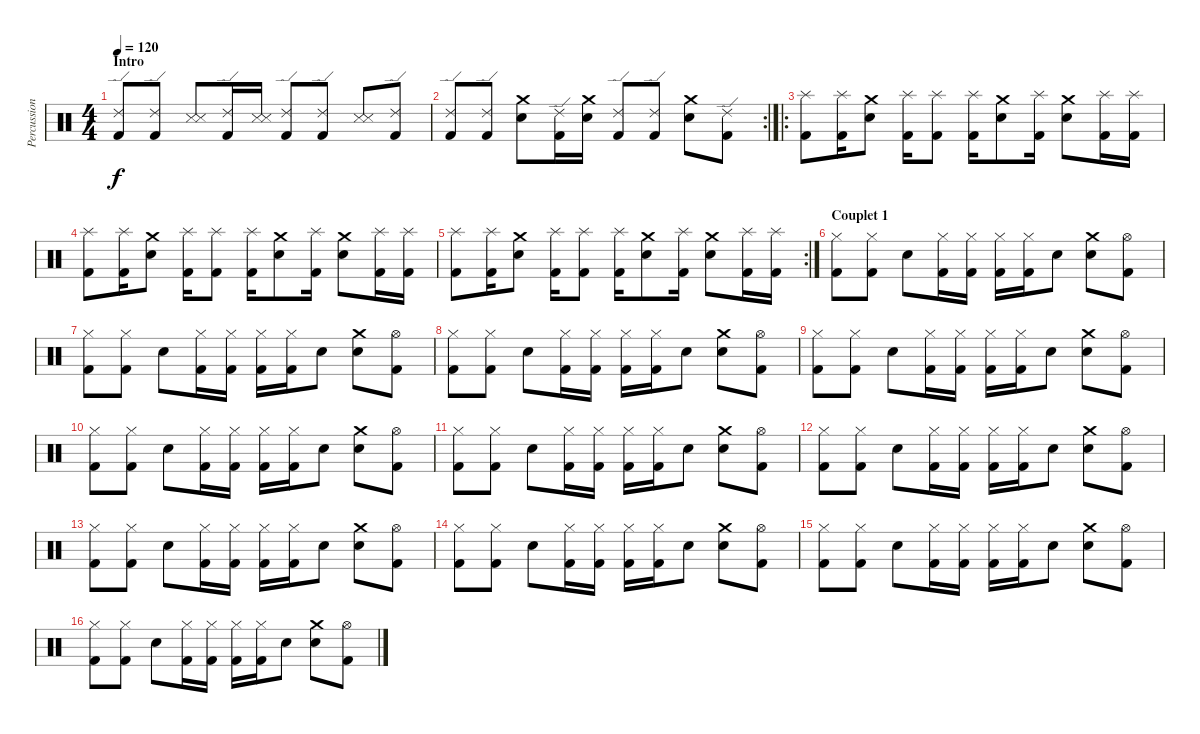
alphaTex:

\track ("Percussions" "Percussion") {instrument percussion}
\staff {score}
\articulation defaults
\ts (4 4)
\section ("" "Intro")
\tempo 120
\clef neutral
\ks c
("Ride (edge) 2" "Kick (hit) 2").8{dy f} ("Ride (edge) 2" "Kick (hit) 2").8 ("Snare (side stick) 3" "Snare (side stick) 3").8 ("Ride (edge) 2" "Kick (hit) 2").16 ("Snare (side stick) 3" "Snare (side stick) 3").16 ("Ride (edge) 2" "Kick (hit) 2").8 ("Ride (edge) 2" "Kick (hit) 2").8 ("Snare (side stick) 3" "Snare (side stick) 3").8 ("Ride (edge) 2" "Kick (hit) 2").8 |
\rc 2
("Ride (edge) 2" "Kick (hit) 2").8 ("Ride (edge) 2" "Kick (hit) 2").8 ("Crash medium (hit)" "Snare (hit) 2").8 ("Ride (edge) 2" "Kick (hit) 2").16 ("Crash medium (hit)" "Snare (hit) 2").16 ("Ride (edge) 2" "Kick (hit) 2").8 ("Ride (edge) 2" "Kick (hit) 2").8 ("Crash medium (hit)" "Snare (hit) 2").8 ("Ride (edge) 2" "Kick (hit) 2").8 |
\ro
("Splash (hit)" "Kick (hit) 2").8 ("Splash (hit)" "Kick (hit) 2").16 ("Crash medium (hit)" "Snare (hit) 2").8 ("Splash (hit)" "Kick (hit) 2").16 ("Splash (hit)" "Kick (hit) 2").8 ("Splash (hit)" "Kick (hit) 2").16 ("Crash medium (hit)" "Snare (hit) 2").8 ("Splash (hit)" "Kick (hit) 2").16 ("Crash medium (hit)" "Snare (hit) 2").8 ("Splash (hit)" "Kick (hit) 2").16 ("Splash (hit)" "Kick (hit) 2").16 |
("Splash (hit)" "Kick (hit) 2").8 ("Splash (hit)" "Kick (hit) 2").16 ("Crash medium (hit)" "Snare (hit) 2").8 ("Splash (hit)" "Kick (hit) 2").16 ("Splash (hit)" "Kick (hit) 2").8 ("Splash (hit)" "Kick (hit) 2").16 ("Crash medium (hit)" "Snare (hit) 2").8 ("Splash (hit)" "Kick (hit) 2").16 ("Crash medium (hit)" "Snare (hit) 2").8 ("Splash (hit)" "Kick (hit) 2").16 ("Splash (hit)" "Kick (hit) 2").16 |
\rc 2
("Splash (hit)" "Kick (hit) 2").8 ("Splash (hit)" "Kick (hit) 2").16 ("Crash medium (hit)" "Snare (hit) 2").8 ("Splash (hit)" "Kick (hit) 2").16 ("Splash (hit)" "Kick (hit) 2").8 ("Splash (hit)" "Kick (hit) 2").16 ("Crash medium (hit)" "Snare (hit) 2").8 ("Splash (hit)" "Kick (hit) 2").16 ("Crash medium (hit)" "Snare (hit) 2").8 ("Splash (hit)" "Kick (hit) 2").16 ("Splash (hit)" "Kick (hit) 2").16 |
\section ("" "Couplet 1")
("Hi-Hat (closed)" "Kick (hit) 2").8 ("Hi-Hat (closed)" "Kick (hit) 2").8 "Snare (hit) 2".8 ("Hi-Hat (closed)" "Kick (hit) 2").16 ("Hi-Hat (closed)" "Kick (hit) 2").16 ("Hi-Hat (closed)" "Kick (hit) 2").16 ("Hi-Hat (closed)" "Kick (hit) 2").16 "Snare (hit) 2".8 ("Crash medium (hit)" "Snare (hit) 2").8 ("Hi-Hat (open)" "Kick (hit) 2").8 |
("Hi-Hat (closed)" "Kick (hit) 2").8 ("Hi-Hat (closed)" "Kick (hit) 2").8 "Snare (hit) 2".8 ("Hi-Hat (closed)" "Kick (hit) 2").16 ("Hi-Hat (closed)" "Kick (hit) 2").16 ("Hi-Hat (closed)" "Kick (hit) 2").16 ("Hi-Hat (closed)" "Kick (hit) 2").16 "Snare (hit) 2".8 ("Crash medium (hit)" "Snare (hit) 2").8 ("Hi-Hat (open)" "Kick (hit) 2").8 |
("Hi-Hat (closed)" "Kick (hit) 2").8 ("Hi-Hat (closed)" "Kick (hit) 2").8 "Snare (hit) 2".8 ("Hi-Hat (closed)" "Kick (hit) 2").16 ("Hi-Hat (closed)" "Kick (hit) 2").16 ("Hi-Hat (closed)" "Kick (hit) 2").16 ("Hi-Hat (closed)" "Kick (hit) 2").16 "Snare (hit) 2".8 ("Crash medium (hit)" "Snare (hit) 2").8 ("Hi-Hat (open)" "Kick (hit) 2").8 |
("Hi-Hat (closed)" "Kick (hit) 2").8 ("Hi-Hat (closed)" "Kick (hit) 2").8 "Snare (hit) 2".8 ("Hi-Hat (closed)" "Kick (hit) 2").16 ("Hi-Hat (closed)" "Kick (hit) 2").16 ("Hi-Hat (closed)" "Kick (hit) 2").16 ("Hi-Hat (closed)" "Kick (hit) 2").16 "Snare (hit) 2".8 ("Crash medium (hit)" "Snare (hit) 2").8 ("Hi-Hat (open)" "Kick (hit) 2").8 |
("Hi-Hat (closed)" "Kick (hit) 2").8 ("Hi-Hat (closed)" "Kick (hit) 2").8 "Snare (hit) 2".8 ("Hi-Hat (closed)" "Kick (hit) 2").16 ("Hi-Hat (closed)" "Kick (hit) 2").16 ("Hi-Hat (closed)" "Kick (hit) 2").16 ("Hi-Hat (closed)" "Kick (hit) 2").16 "Snare (hit) 2".8 ("Crash medium (hit)" "Snare (hit) 2").8 ("Hi-Hat (open)" "Kick (hit) 2").8 |
("Hi-Hat (closed)" "Kick (hit) 2").8 ("Hi-Hat (closed)" "Kick (hit) 2").8 "Snare (hit) 2".8 ("Hi-Hat (closed)" "Kick (hit) 2").16 ("Hi-Hat (closed)" "Kick (hit) 2").16 ("Hi-Hat (closed)" "Kick (hit) 2").16 ("Hi-Hat (closed)" "Kick (hit) 2").16 "Snare (hit) 2".8 ("Crash medium (hit)" "Snare (hit) 2").8 ("Hi-Hat (open)" "Kick (hit) 2").8 |
("Hi-Hat (closed)" "Kick (hit) 2").8 ("Hi-Hat (closed)" "Kick (hit) 2").8 "Snare (hit) 2".8 ("Hi-Hat (closed)" "Kick (hit) 2").16 ("Hi-Hat (closed)" "Kick (hit) 2").16 ("Hi-Hat (closed)" "Kick (hit) 2").16 ("Hi-Hat (closed)" "Kick (hit) 2").16 "Snare (hit) 2".8 ("Crash medium (hit)" "Snare (hit) 2").8 ("Hi-Hat (open)" "Kick (hit) 2").8 |
("Hi-Hat (closed)" "Kick (hit) 2").8 ("Hi-Hat (closed)" "Kick (hit) 2").8 "Snare (hit) 2".8 ("Hi-Hat (closed)" "Kick (hit) 2").16 ("Hi-Hat (closed)" "Kick (hit) 2").16 ("Hi-Hat (closed)" "Kick (hit) 2").16 ("Hi-Hat (closed)" "Kick (hit) 2").16 "Snare (hit) 2".8 ("Crash medium (hit)" "Snare (hit) 2").8 ("Hi-Hat (open)" "Kick (hit) 2").8 |
("Hi-Hat (closed)" "Kick (hit) 2").8 ("Hi-Hat (closed)" "Kick (hit) 2").8 "Snare (hit) 2".8 ("Hi-Hat (closed)" "Kick (hit) 2").16 ("Hi-Hat (closed)" "Kick (hit) 2").16 ("Hi-Hat (closed)" "Kick (hit) 2").16 ("Hi-Hat (closed)" "Kick (hit) 2").16 "Snare (hit) 2".8 ("Crash medium (hit)" "Snare (hit) 2").8 ("Hi-Hat (open)" "Kick (hit) 2").8 |
("Hi-Hat (closed)" "Kick (hit) 2").8 ("Hi-Hat (closed)" "Kick (hit) 2").8 "Snare (hit) 2".8 ("Hi-Hat (closed)" "Kick (hit) 2").16 ("Hi-Hat (closed)" "Kick (hit) 2").16 ("Hi-Hat (closed)" "Kick (hit) 2").16 ("Hi-Hat (closed)" "Kick (hit) 2").16 "Snare (hit) 2".8 ("Crash medium (hit)" "Snare (hit) 2").8 ("Hi-Hat (open)" "Kick (hit) 2").8 |
("Hi-Hat (closed)" "Kick (hit) 2").8 ("Hi-Hat (closed)" "Kick (hit) 2").8 "Snare (hit) 2".8 ("Hi-Hat (closed)" "Kick (hit) 2").16 ("Hi-Hat (closed)" "Kick (hit) 2").16 ("Hi-Hat (closed)" "Kick (hit) 2").16 ("Hi-Hat (closed)" "Kick (hit) 2").16 "Snare (hit) 2".8 ("Crash medium (hit)" "Snare (hit) 2").8 ("Hi-Hat (open)" "Kick (hit) 2").8
